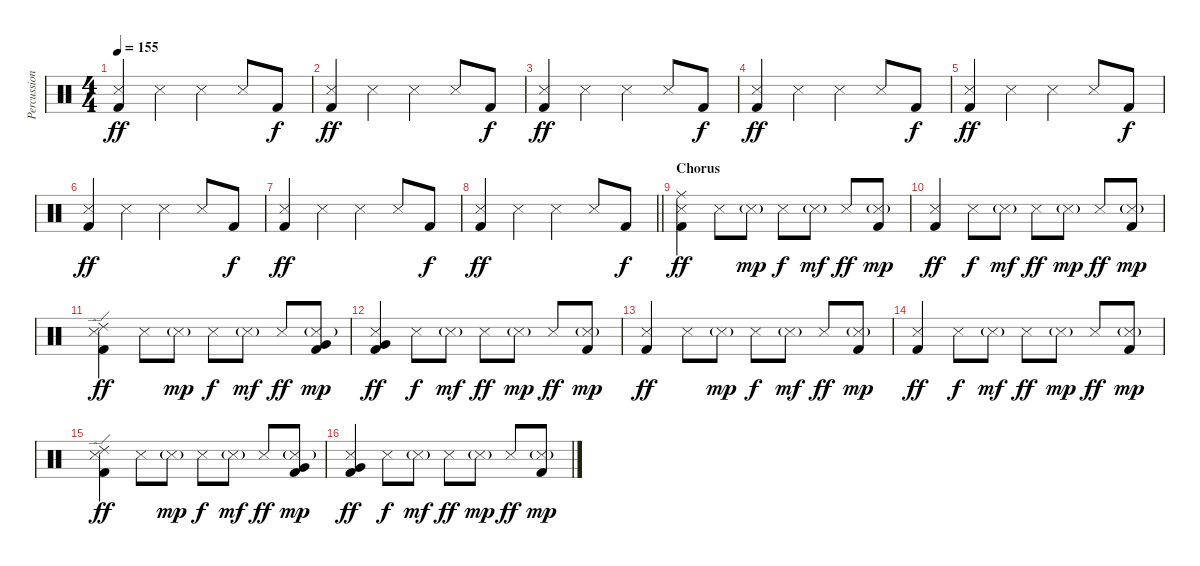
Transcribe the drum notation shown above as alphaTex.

\track ("Percussion" "Percussion") {instrument percussion}
\staff {score}
\articulation defaults
\ts (4 4)
\tempo 155
\clef neutral
\ks c
("Snare (side stick) 3" "Kick (hit) 2").4{dy ff} "Snare (side stick) 3".4 "Snare (side stick) 3".4 "Snare (side stick) 3".8 "Kick (hit) 2".8{dy f} |
("Snare (side stick) 3" "Kick (hit) 2").4{dy ff} "Snare (side stick) 3".4 "Snare (side stick) 3".4 "Snare (side stick) 3".8 "Kick (hit) 2".8{dy f} |
("Snare (side stick) 3" "Kick (hit) 2").4{dy ff} "Snare (side stick) 3".4 "Snare (side stick) 3".4 "Snare (side stick) 3".8 "Kick (hit) 2".8{dy f} |
("Snare (side stick) 3" "Kick (hit) 2").4{dy ff} "Snare (side stick) 3".4 "Snare (side stick) 3".4 "Snare (side stick) 3".8 "Kick (hit) 2".8{dy f} |
("Snare (side stick) 3" "Kick (hit) 2").4{dy ff} "Snare (side stick) 3".4 "Snare (side stick) 3".4 "Snare (side stick) 3".8 "Kick (hit) 2".8{dy f} |
("Snare (side stick) 3" "Kick (hit) 2").4{dy ff} "Snare (side stick) 3".4 "Snare (side stick) 3".4 "Snare (side stick) 3".8 "Kick (hit) 2".8{dy f} |
("Snare (side stick) 3" "Kick (hit) 2").4{dy ff} "Snare (side stick) 3".4 "Snare (side stick) 3".4 "Snare (side stick) 3".8 "Kick (hit) 2".8{dy f} |
\barLineRight lightlight
("Snare (side stick) 3" "Kick (hit) 2").4{dy ff} "Snare (side stick) 3".4 "Snare (side stick) 3".4 "Snare (side stick) 3".8 "Kick (hit) 2".8{dy f} |
\section ("" "Chorus")
("Ride (middle)" "Snare (side stick) 3" "Kick (hit) 2").4{dy ff} "Snare (side stick) 3".8 "Snare (side stick) 3"{g}.8{dy mp} "Snare (side stick) 3".8{dy f} "Snare (side stick) 3"{g}.8{dy mf} "Snare (side stick) 3".8{dy ff} ("Snare (side stick) 3"{g} "Kick (hit) 2").8{dy mp} |
("Snare (side stick) 3" "Kick (hit) 2").4{dy ff} "Snare (side stick) 3".8{dy f} "Snare (side stick) 3"{g}.8{dy mf} "Snare (side stick) 3".8{dy ff} "Snare (side stick) 3"{g}.8{dy mp} "Snare (side stick) 3".8{dy ff} ("Snare (side stick) 3"{g} "Kick (hit) 2").8{dy mp} |
("Ride (edge) 2" "Snare (side stick) 3" "Kick (hit) 2").4{dy ff} "Snare (side stick) 3".8 "Snare (side stick) 3"{g}.8{dy mp} "Snare (side stick) 3".8{dy f} "Snare (side stick) 3"{g}.8{dy mf} "Snare (side stick) 3".8{dy ff} ("Snare (side stick) 3"{g} "Very Low Tom (hit)" "Kick (hit) 2").8{dy mp} |
("Snare (side stick) 3" "Very Low Tom (hit)" "Kick (hit) 2").4{dy ff} "Snare (side stick) 3".8{dy f} "Snare (side stick) 3"{g}.8{dy mf} "Snare (side stick) 3".8{dy ff} "Snare (side stick) 3"{g}.8{dy mp} "Snare (side stick) 3".8{dy ff} ("Snare (side stick) 3"{g} "Kick (hit) 2").8{dy mp} |
("Snare (side stick) 3" "Kick (hit) 2").4{dy ff} "Snare (side stick) 3".8 "Snare (side stick) 3"{g}.8{dy mp} "Snare (side stick) 3".8{dy f} "Snare (side stick) 3"{g}.8{dy mf} "Snare (side stick) 3".8{dy ff} ("Snare (side stick) 3"{g} "Kick (hit) 2").8{dy mp} |
("Snare (side stick) 3" "Kick (hit) 2").4{dy ff} "Snare (side stick) 3".8{dy f} "Snare (side stick) 3"{g}.8{dy mf} "Snare (side stick) 3".8{dy ff} "Snare (side stick) 3"{g}.8{dy mp} "Snare (side stick) 3".8{dy ff} ("Snare (side stick) 3"{g} "Kick (hit) 2").8{dy mp} |
("Ride (edge) 2" "Snare (side stick) 3" "Kick (hit) 2").4{dy ff} "Snare (side stick) 3".8 "Snare (side stick) 3"{g}.8{dy mp} "Snare (side stick) 3".8{dy f} "Snare (side stick) 3"{g}.8{dy mf} "Snare (side stick) 3".8{dy ff} ("Snare (side stick) 3"{g} "Very Low Tom (hit)" "Kick (hit) 2").8{dy mp} |
("Snare (side stick) 3" "Very Low Tom (hit)" "Kick (hit) 2").4{dy ff} "Snare (side stick) 3".8{dy f} "Snare (side stick) 3"{g}.8{dy mf} "Snare (side stick) 3".8{dy ff} "Snare (side stick) 3"{g}.8{dy mp} "Snare (side stick) 3".8{dy ff} ("Snare (side stick) 3"{g} "Kick (hit) 2").8{dy mp}
